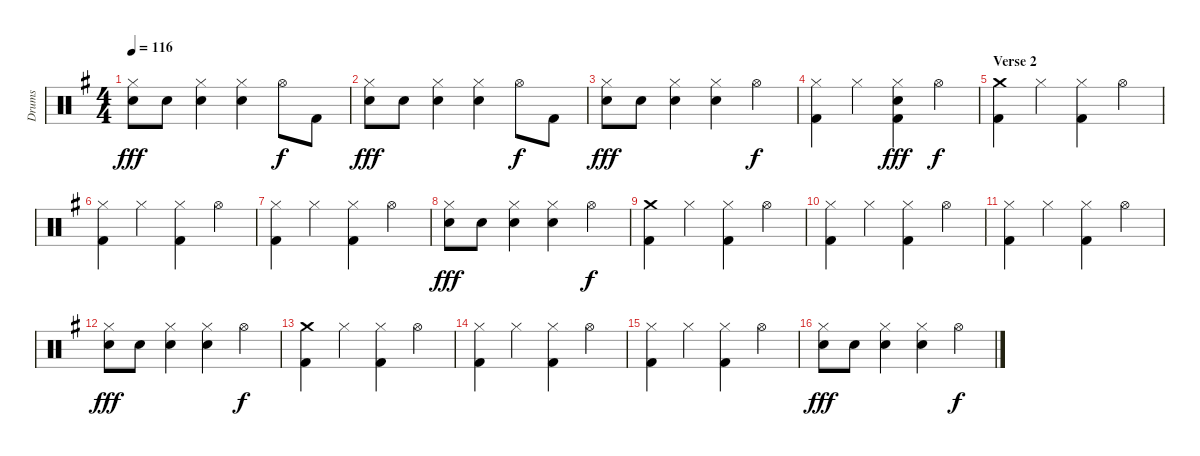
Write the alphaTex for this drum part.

\track ("Drums" "Drums") {instrument percussion}
\staff {score}
\articulation defaults
\ts (4 4)
\tempo 116
\clef neutral
\ks g
("Hi-Hat (closed)" "Snare (hit) 2").8{dy fff} "Snare (hit) 2".8 ("Hi-Hat (closed)" "Snare (hit) 2").4 ("Hi-Hat (closed)" "Snare (hit) 2").4 "Hi-Hat (open)".8{dy f} "Kick (hit) 2".8 |
("Hi-Hat (closed)" "Snare (hit) 2").8{dy fff} "Snare (hit) 2".8 ("Hi-Hat (closed)" "Snare (hit) 2").4 ("Hi-Hat (closed)" "Snare (hit) 2").4 "Hi-Hat (open)".8{dy f} "Kick (hit) 2".8 |
("Hi-Hat (closed)" "Snare (hit) 2").8{dy fff} "Snare (hit) 2".8 ("Hi-Hat (closed)" "Snare (hit) 2").4 ("Hi-Hat (closed)" "Snare (hit) 2").4 "Hi-Hat (open)".4{dy f} |
("Hi-Hat (closed)" "Kick (hit) 2").4 "Hi-Hat (closed)".4 ("Hi-Hat (closed)" "Snare (hit) 2" "Kick (hit) 2").4{dy fff} "Hi-Hat (open)".4{dy f} |
\section ("" "Verse 2")
("Crash medium (hit)" "Kick (hit) 2").4 "Hi-Hat (closed)".4 ("Hi-Hat (closed)" "Kick (hit) 2").4 "Hi-Hat (open)".4 |
("Hi-Hat (closed)" "Kick (hit) 2").4 "Hi-Hat (closed)".4 ("Hi-Hat (closed)" "Kick (hit) 2").4 "Hi-Hat (open)".4 |
("Hi-Hat (closed)" "Kick (hit) 2").4 "Hi-Hat (closed)".4 ("Hi-Hat (closed)" "Kick (hit) 2").4 "Hi-Hat (open)".4 |
("Hi-Hat (closed)" "Snare (hit) 2").8{dy fff} "Snare (hit) 2".8 ("Hi-Hat (closed)" "Snare (hit) 2").4 ("Hi-Hat (closed)" "Snare (hit) 2").4 "Hi-Hat (open)".4{dy f} |
("Crash medium (hit)" "Kick (hit) 2").4 "Hi-Hat (closed)".4 ("Hi-Hat (closed)" "Kick (hit) 2").4 "Hi-Hat (open)".4 |
("Hi-Hat (closed)" "Kick (hit) 2").4 "Hi-Hat (closed)".4 ("Hi-Hat (closed)" "Kick (hit) 2").4 "Hi-Hat (open)".4 |
("Hi-Hat (closed)" "Kick (hit) 2").4 "Hi-Hat (closed)".4 ("Hi-Hat (closed)" "Kick (hit) 2").4 "Hi-Hat (open)".4 |
("Hi-Hat (closed)" "Snare (hit) 2").8{dy fff} "Snare (hit) 2".8 ("Hi-Hat (closed)" "Snare (hit) 2").4 ("Hi-Hat (closed)" "Snare (hit) 2").4 "Hi-Hat (open)".4{dy f} |
("Crash medium (hit)" "Kick (hit) 2").4 "Hi-Hat (closed)".4 ("Hi-Hat (closed)" "Kick (hit) 2").4 "Hi-Hat (open)".4 |
("Hi-Hat (closed)" "Kick (hit) 2").4 "Hi-Hat (closed)".4 ("Hi-Hat (closed)" "Kick (hit) 2").4 "Hi-Hat (open)".4 |
("Hi-Hat (closed)" "Kick (hit) 2").4 "Hi-Hat (closed)".4 ("Hi-Hat (closed)" "Kick (hit) 2").4 "Hi-Hat (open)".4 |
("Hi-Hat (closed)" "Snare (hit) 2").8{dy fff} "Snare (hit) 2".8 ("Hi-Hat (closed)" "Snare (hit) 2").4 ("Hi-Hat (closed)" "Snare (hit) 2").4 "Hi-Hat (open)".4{dy f}
